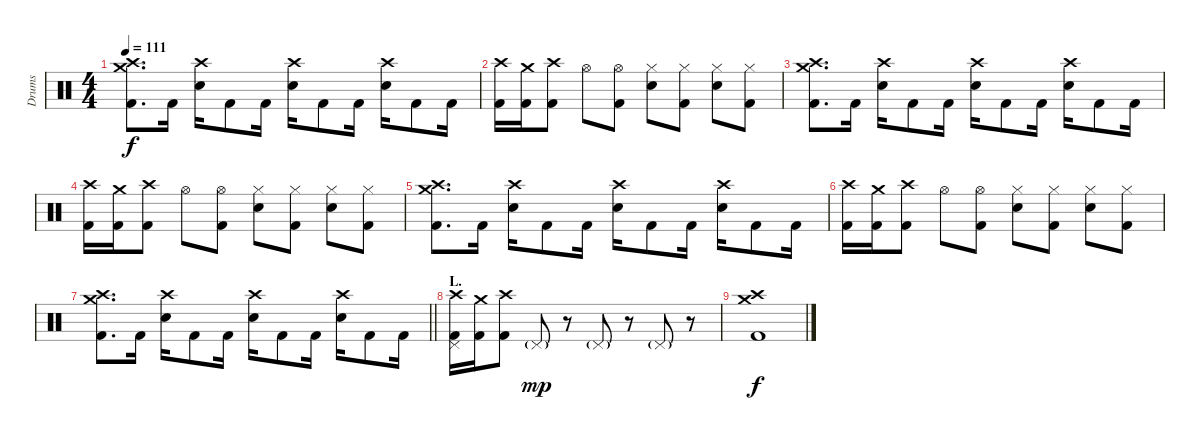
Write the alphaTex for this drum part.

\track ("Drums" "Drums") {instrument percussion}
\staff {score}
\articulation defaults
\ts (4 4)
\tempo 111
\clef neutral
\ks c
("Crash medium (hit)" "Crash high (hit)" "Kick (hit) 2").8{d dy f} "Kick (hit) 2".16 ("Crash high (hit)" "Electric Snare (hit)").16 "Kick (hit) 2".8 "Kick (hit) 2".16 ("Crash high (hit)" "Electric Snare (hit)").16 "Kick (hit) 2".8 "Kick (hit) 2".16 ("Crash high (hit)" "Electric Snare (hit)").16 "Kick (hit) 2".8 "Kick (hit) 2".16 |
("Crash high (hit)" "Kick (hit) 2").16 ("Crash medium (hit)" "Kick (hit) 2").16 ("Crash high (hit)" "Kick (hit) 2").8 "Hi-Hat (open)".8 ("Hi-Hat (open)" "Kick (hit) 2").8 ("Hi-Hat (closed)" "Electric Snare (hit)").8 ("Hi-Hat (closed)" "Kick (hit) 2").8 ("Hi-Hat (closed)" "Electric Snare (hit)").8 ("Hi-Hat (closed)" "Kick (hit) 2").8 |
("Crash medium (hit)" "Crash high (hit)" "Kick (hit) 2").8{d} "Kick (hit) 2".16 ("Crash high (hit)" "Electric Snare (hit)").16 "Kick (hit) 2".8 "Kick (hit) 2".16 ("Crash high (hit)" "Electric Snare (hit)").16 "Kick (hit) 2".8 "Kick (hit) 2".16 ("Crash high (hit)" "Electric Snare (hit)").16 "Kick (hit) 2".8 "Kick (hit) 2".16 |
("Crash high (hit)" "Kick (hit) 2").16 ("Crash medium (hit)" "Kick (hit) 2").16 ("Crash high (hit)" "Kick (hit) 2").8 "Hi-Hat (open)".8 ("Hi-Hat (open)" "Kick (hit) 2").8 ("Hi-Hat (closed)" "Electric Snare (hit)").8 ("Hi-Hat (closed)" "Kick (hit) 2").8 ("Hi-Hat (closed)" "Electric Snare (hit)").8 ("Hi-Hat (closed)" "Kick (hit) 2").8 |
("Crash medium (hit)" "Crash high (hit)" "Kick (hit) 2").8{d} "Kick (hit) 2".16 ("Crash high (hit)" "Electric Snare (hit)").16 "Kick (hit) 2".8 "Kick (hit) 2".16 ("Crash high (hit)" "Electric Snare (hit)").16 "Kick (hit) 2".8 "Kick (hit) 2".16 ("Crash high (hit)" "Electric Snare (hit)").16 "Kick (hit) 2".8 "Kick (hit) 2".16 |
("Crash high (hit)" "Kick (hit) 2").16 ("Crash medium (hit)" "Kick (hit) 2").16 ("Crash high (hit)" "Kick (hit) 2").8 "Hi-Hat (open)".8 ("Hi-Hat (open)" "Kick (hit) 2").8 ("Hi-Hat (closed)" "Electric Snare (hit)").8 ("Hi-Hat (closed)" "Kick (hit) 2").8 ("Hi-Hat (closed)" "Electric Snare (hit)").8 ("Hi-Hat (closed)" "Kick (hit) 2").8 |
\barLineRight lightlight
("Crash medium (hit)" "Crash high (hit)" "Kick (hit) 2").8{d} "Kick (hit) 2".16 ("Crash high (hit)" "Electric Snare (hit)").16 "Kick (hit) 2".8 "Kick (hit) 2".16 ("Crash high (hit)" "Electric Snare (hit)").16 "Kick (hit) 2".8 "Kick (hit) 2".16 ("Crash high (hit)" "Electric Snare (hit)").16 "Kick (hit) 2".8 "Kick (hit) 2".16 |
\section ("" "L.")
("Crash high (hit)" "Pedal Hi-Hat (hit)" "Kick (hit) 2").16 ("Crash medium (hit)" "Kick (hit) 2").16 ("Crash high (hit)" "Kick (hit) 2").8 "Pedal Hi-Hat (hit)"{g}.8{dy mp} r.8 "Pedal Hi-Hat (hit)"{g}.8 r.8 "Pedal Hi-Hat (hit)"{g}.8 r.8 |
("Crash medium (hit)" "Crash high (hit)" "Kick (hit) 2").1{dy f}
